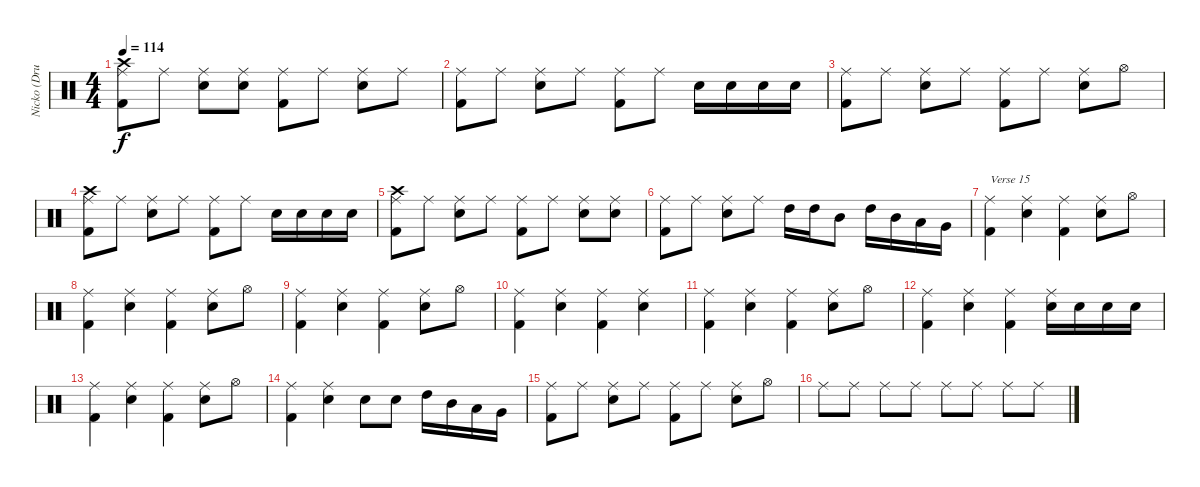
\track ("Nicko (Drums)" "Nicko (Dru") {instrument percussion}
\staff {score}
\articulation defaults
\ts (4 4)
\tempo 114
\clef neutral
\ks c
("Ride (middle)" "Kick (hit) 2" "Crash high (hit)").8{dy f} "Ride (middle)".8 ("Ride (middle)" "Snare (hit) 2").8 ("Ride (middle)" "Snare (hit) 2").8 ("Ride (middle)" "Kick (hit) 2").8 "Ride (middle)".8 ("Ride (middle)" "Snare (hit) 2").8 "Ride (middle)".8 |
("Ride (middle)" "Kick (hit) 2").8 "Ride (middle)".8 ("Ride (middle)" "Snare (hit) 2").8 "Ride (middle)".8 ("Ride (middle)" "Kick (hit) 2").8 "Ride (middle)".8 "Snare (hit) 2".16 "Snare (hit) 2".16 "Snare (hit) 2".16 "Snare (hit) 2".16 |
("Ride (middle)" "Kick (hit) 2").8 "Ride (middle)".8 ("Ride (middle)" "Snare (hit) 2").8 "Ride (middle)".8 ("Ride (middle)" "Kick (hit) 2").8 "Ride (middle)".8 ("Ride (middle)" "Snare (hit) 2").8 "Hi-Hat (open)".8 |
("Ride (middle)" "Kick (hit) 2" "Crash high (hit)").8 "Ride (middle)".8 ("Ride (middle)" "Snare (hit) 2").8 "Ride (middle)".8 ("Ride (middle)" "Kick (hit) 2").8 "Ride (middle)".8 "Snare (hit) 2".16 "Snare (hit) 2".16 "Snare (hit) 2".16 "Snare (hit) 2".16 |
("Ride (middle)" "Kick (hit) 2" "Crash high (hit)").8 "Ride (middle)".8 ("Ride (middle)" "Snare (hit) 2").8 "Ride (middle)".8 ("Ride (middle)" "Kick (hit) 2").8 "Ride (middle)".8 ("Ride (middle)" "Snare (hit) 2").8 ("Ride (middle)" "Snare (hit) 2").8 |
("Ride (middle)" "Kick (hit) 2").8 "Ride (middle)".8 ("Ride (middle)" "Snare (hit) 2").8 "Ride (middle)".8 "High Tom (hit)".16 "High Tom (hit)".16 "Mid Tom (hit)".8 "High Tom (hit)".16 "Mid Tom (hit)".16 "Low Tom (hit)".16 "Very Low Tom (hit)".16 |
("Ride (middle)" "Kick (hit) 2").4{txt "Verse 15"} ("Ride (middle)" "Snare (hit) 2").4 ("Ride (middle)" "Kick (hit) 2").4 ("Ride (middle)" "Snare (hit) 2").8 "Hi-Hat (open)".8 |
("Ride (middle)" "Kick (hit) 2").4 ("Ride (middle)" "Snare (hit) 2").4 ("Ride (middle)" "Kick (hit) 2").4 ("Ride (middle)" "Snare (hit) 2").8 "Hi-Hat (open)".8 |
("Ride (middle)" "Kick (hit) 2").4 ("Ride (middle)" "Snare (hit) 2").4 ("Ride (middle)" "Kick (hit) 2").4 ("Ride (middle)" "Snare (hit) 2").8 "Hi-Hat (open)".8 |
("Ride (middle)" "Kick (hit) 2").4 ("Ride (middle)" "Snare (hit) 2").4 ("Ride (middle)" "Kick (hit) 2").4 ("Ride (middle)" "Snare (hit) 2").4 |
("Ride (middle)" "Kick (hit) 2").4 ("Ride (middle)" "Snare (hit) 2").4 ("Ride (middle)" "Kick (hit) 2").4 ("Ride (middle)" "Snare (hit) 2").8 "Hi-Hat (open)".8 |
("Ride (middle)" "Kick (hit) 2").4 ("Ride (middle)" "Snare (hit) 2").4 ("Ride (middle)" "Kick (hit) 2").4 ("Ride (middle)" "Snare (hit) 2").16 "Snare (hit) 2".16 "Snare (hit) 2".16 "Snare (hit) 2".16 |
("Ride (middle)" "Kick (hit) 2").4 ("Ride (middle)" "Snare (hit) 2").4 ("Ride (middle)" "Kick (hit) 2").4 ("Ride (middle)" "Snare (hit) 2").8 "Hi-Hat (open)".8 |
("Ride (middle)" "Kick (hit) 2").4 ("Ride (middle)" "Snare (hit) 2").4 "Snare (hit) 2".8 "Snare (hit) 2".8 "High Tom (hit)".16 "Mid Tom (hit)".16 "Low Tom (hit)".16 "Very Low Tom (hit)".16 |
("Ride (middle)" "Kick (hit) 2").8 "Ride (middle)".8 ("Ride (middle)" "Snare (hit) 2").8 "Ride (middle)".8 ("Ride (middle)" "Kick (hit) 2").8 "Ride (middle)".8 ("Ride (middle)" "Snare (hit) 2").8 "Hi-Hat (open)".8 |
"Ride (middle)".8 "Ride (middle)".8 "Ride (middle)".8 "Ride (middle)".8 "Ride (middle)".8 "Ride (middle)".8 "Ride (middle)".8 "Ride (middle)".8
